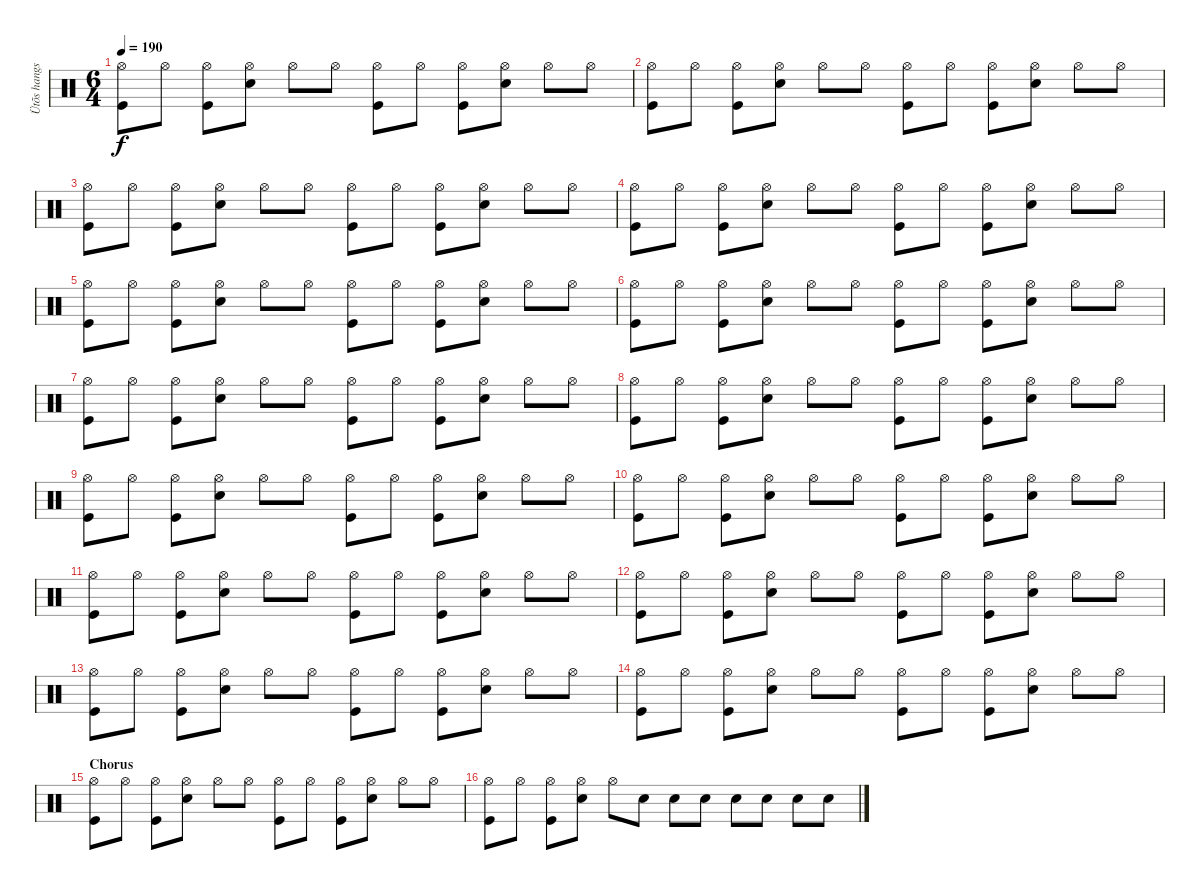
\track ("Ütõs hangszer" "Ütõs hangs") {instrument percussion}
\staff {score}
\articulation defaults
\ts (6 4)
\tempo 190
\clef neutral
\ks c
("Hi-Hat (open)" "Kick (hit)").8{dy f} "Hi-Hat (open)".8 ("Hi-Hat (open)" "Kick (hit)").8 ("Hi-Hat (open)" "Snare (hit) 2").8 "Hi-Hat (open)".8 "Hi-Hat (open)".8 ("Hi-Hat (open)" "Kick (hit)").8 "Hi-Hat (open)".8 ("Hi-Hat (open)" "Kick (hit)").8 ("Hi-Hat (open)" "Snare (hit) 2").8 "Hi-Hat (open)".8 "Hi-Hat (open)".8 |
("Hi-Hat (open)" "Kick (hit)").8 "Hi-Hat (open)".8 ("Hi-Hat (open)" "Kick (hit)").8 ("Hi-Hat (open)" "Snare (hit) 2").8 "Hi-Hat (open)".8 "Hi-Hat (open)".8 ("Hi-Hat (open)" "Kick (hit)").8 "Hi-Hat (open)".8 ("Hi-Hat (open)" "Kick (hit)").8 ("Hi-Hat (open)" "Snare (hit) 2").8 "Hi-Hat (open)".8 "Hi-Hat (open)".8 |
("Hi-Hat (open)" "Kick (hit)").8 "Hi-Hat (open)".8 ("Hi-Hat (open)" "Kick (hit)").8 ("Hi-Hat (open)" "Snare (hit) 2").8 "Hi-Hat (open)".8 "Hi-Hat (open)".8 ("Hi-Hat (open)" "Kick (hit)").8 "Hi-Hat (open)".8 ("Hi-Hat (open)" "Kick (hit)").8 ("Hi-Hat (open)" "Snare (hit) 2").8 "Hi-Hat (open)".8 "Hi-Hat (open)".8 |
("Hi-Hat (open)" "Kick (hit)").8 "Hi-Hat (open)".8 ("Hi-Hat (open)" "Kick (hit)").8 ("Hi-Hat (open)" "Snare (hit) 2").8 "Hi-Hat (open)".8 "Hi-Hat (open)".8 ("Hi-Hat (open)" "Kick (hit)").8 "Hi-Hat (open)".8 ("Hi-Hat (open)" "Kick (hit)").8 ("Hi-Hat (open)" "Snare (hit) 2").8 "Hi-Hat (open)".8 "Hi-Hat (open)".8 |
("Hi-Hat (open)" "Kick (hit)").8 "Hi-Hat (open)".8 ("Hi-Hat (open)" "Kick (hit)").8 ("Hi-Hat (open)" "Snare (hit) 2").8 "Hi-Hat (open)".8 "Hi-Hat (open)".8 ("Hi-Hat (open)" "Kick (hit)").8 "Hi-Hat (open)".8 ("Hi-Hat (open)" "Kick (hit)").8 ("Hi-Hat (open)" "Snare (hit) 2").8 "Hi-Hat (open)".8 "Hi-Hat (open)".8 |
("Hi-Hat (open)" "Kick (hit)").8 "Hi-Hat (open)".8 ("Hi-Hat (open)" "Kick (hit)").8 ("Hi-Hat (open)" "Snare (hit) 2").8 "Hi-Hat (open)".8 "Hi-Hat (open)".8 ("Hi-Hat (open)" "Kick (hit)").8 "Hi-Hat (open)".8 ("Hi-Hat (open)" "Kick (hit)").8 ("Hi-Hat (open)" "Snare (hit) 2").8 "Hi-Hat (open)".8 "Hi-Hat (open)".8 |
("Hi-Hat (open)" "Kick (hit)").8 "Hi-Hat (open)".8 ("Hi-Hat (open)" "Kick (hit)").8 ("Hi-Hat (open)" "Snare (hit) 2").8 "Hi-Hat (open)".8 "Hi-Hat (open)".8 ("Hi-Hat (open)" "Kick (hit)").8 "Hi-Hat (open)".8 ("Hi-Hat (open)" "Kick (hit)").8 ("Hi-Hat (open)" "Snare (hit) 2").8 "Hi-Hat (open)".8 "Hi-Hat (open)".8 |
("Hi-Hat (open)" "Kick (hit)").8 "Hi-Hat (open)".8 ("Hi-Hat (open)" "Kick (hit)").8 ("Hi-Hat (open)" "Snare (hit) 2").8 "Hi-Hat (open)".8 "Hi-Hat (open)".8 ("Hi-Hat (open)" "Kick (hit)").8 "Hi-Hat (open)".8 ("Hi-Hat (open)" "Kick (hit)").8 ("Hi-Hat (open)" "Snare (hit) 2").8 "Hi-Hat (open)".8 "Hi-Hat (open)".8 |
("Hi-Hat (open)" "Kick (hit)").8 "Hi-Hat (open)".8 ("Hi-Hat (open)" "Kick (hit)").8 ("Hi-Hat (open)" "Snare (hit) 2").8 "Hi-Hat (open)".8 "Hi-Hat (open)".8 ("Hi-Hat (open)" "Kick (hit)").8 "Hi-Hat (open)".8 ("Hi-Hat (open)" "Kick (hit)").8 ("Hi-Hat (open)" "Snare (hit) 2").8 "Hi-Hat (open)".8 "Hi-Hat (open)".8 |
("Hi-Hat (open)" "Kick (hit)").8 "Hi-Hat (open)".8 ("Hi-Hat (open)" "Kick (hit)").8 ("Hi-Hat (open)" "Snare (hit) 2").8 "Hi-Hat (open)".8 "Hi-Hat (open)".8 ("Hi-Hat (open)" "Kick (hit)").8 "Hi-Hat (open)".8 ("Hi-Hat (open)" "Kick (hit)").8 ("Hi-Hat (open)" "Snare (hit) 2").8 "Hi-Hat (open)".8 "Hi-Hat (open)".8 |
("Hi-Hat (open)" "Kick (hit)").8 "Hi-Hat (open)".8 ("Hi-Hat (open)" "Kick (hit)").8 ("Hi-Hat (open)" "Snare (hit) 2").8 "Hi-Hat (open)".8 "Hi-Hat (open)".8 ("Hi-Hat (open)" "Kick (hit)").8 "Hi-Hat (open)".8 ("Hi-Hat (open)" "Kick (hit)").8 ("Hi-Hat (open)" "Snare (hit) 2").8 "Hi-Hat (open)".8 "Hi-Hat (open)".8 |
("Hi-Hat (open)" "Kick (hit)").8 "Hi-Hat (open)".8 ("Hi-Hat (open)" "Kick (hit)").8 ("Hi-Hat (open)" "Snare (hit) 2").8 "Hi-Hat (open)".8 "Hi-Hat (open)".8 ("Hi-Hat (open)" "Kick (hit)").8 "Hi-Hat (open)".8 ("Hi-Hat (open)" "Kick (hit)").8 ("Hi-Hat (open)" "Snare (hit) 2").8 "Hi-Hat (open)".8 "Hi-Hat (open)".8 |
("Hi-Hat (open)" "Kick (hit)").8 "Hi-Hat (open)".8 ("Hi-Hat (open)" "Kick (hit)").8 ("Hi-Hat (open)" "Snare (hit) 2").8 "Hi-Hat (open)".8 "Hi-Hat (open)".8 ("Hi-Hat (open)" "Kick (hit)").8 "Hi-Hat (open)".8 ("Hi-Hat (open)" "Kick (hit)").8 ("Hi-Hat (open)" "Snare (hit) 2").8 "Hi-Hat (open)".8 "Hi-Hat (open)".8 |
("Hi-Hat (open)" "Kick (hit)").8 "Hi-Hat (open)".8 ("Hi-Hat (open)" "Kick (hit)").8 ("Hi-Hat (open)" "Snare (hit) 2").8 "Hi-Hat (open)".8 "Hi-Hat (open)".8 ("Hi-Hat (open)" "Kick (hit)").8 "Hi-Hat (open)".8 ("Hi-Hat (open)" "Kick (hit)").8 ("Hi-Hat (open)" "Snare (hit) 2").8 "Hi-Hat (open)".8 "Hi-Hat (open)".8 |
\section ("" "Chorus")
("Hi-Hat (open)" "Kick (hit)").8 "Hi-Hat (open)".8 ("Hi-Hat (open)" "Kick (hit)").8 ("Hi-Hat (open)" "Snare (hit) 2").8 "Hi-Hat (open)".8 "Hi-Hat (open)".8 ("Hi-Hat (open)" "Kick (hit)").8 "Hi-Hat (open)".8 ("Hi-Hat (open)" "Kick (hit)").8 ("Hi-Hat (open)" "Snare (hit) 2").8 "Hi-Hat (open)".8 "Hi-Hat (open)".8 |
("Hi-Hat (open)" "Kick (hit)").8 "Hi-Hat (open)".8 ("Hi-Hat (open)" "Kick (hit)").8 ("Hi-Hat (open)" "Snare (hit) 2").8 "Hi-Hat (open)".8 "Snare (hit) 2".8 "Snare (hit) 2".8 "Snare (hit) 2".8 "Snare (hit) 2".8 "Snare (hit) 2".8 "Snare (hit) 2".8 "Snare (hit) 2".8
